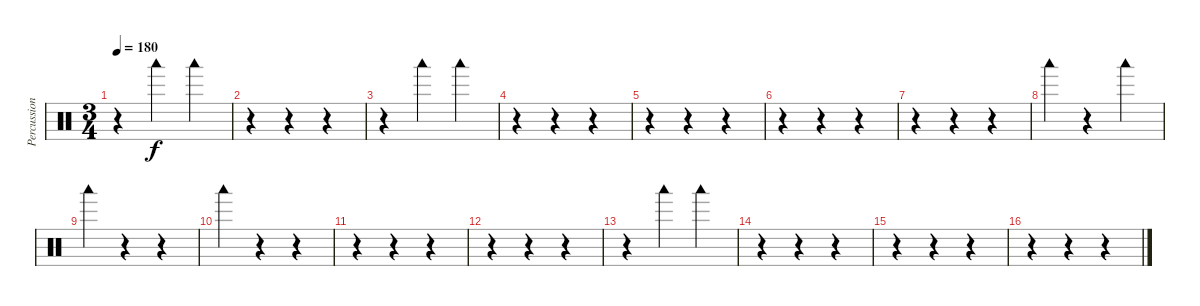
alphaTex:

\track ("Percussions" "Percussion") {instrument percussion}
\staff {score}
\articulation defaults
\ts (3 4)
\tempo 180
\clef neutral
\ks c
r.4{dy f} "Woodblock low (hit)".4 "Woodblock low (hit)".4 |
r.4 r.4 r.4 |
r.4 "Woodblock low (hit)".4 "Woodblock low (hit)".4 |
r.4 r.4 r.4 |
r.4 r.4 r.4 |
r.4 r.4 r.4 |
r.4 r.4 r.4 |
"Woodblock low (hit)".4 r.4 "Woodblock low (hit)".4 |
"Woodblock low (hit)".4 r.4 r.4 |
"Woodblock low (hit)".4 r.4 r.4 |
r.4 r.4 r.4 |
r.4 r.4 r.4 |
r.4 "Woodblock low (hit)".4 "Woodblock low (hit)".4 |
r.4 r.4 r.4 |
r.4 r.4 r.4 |
r.4 r.4 r.4
